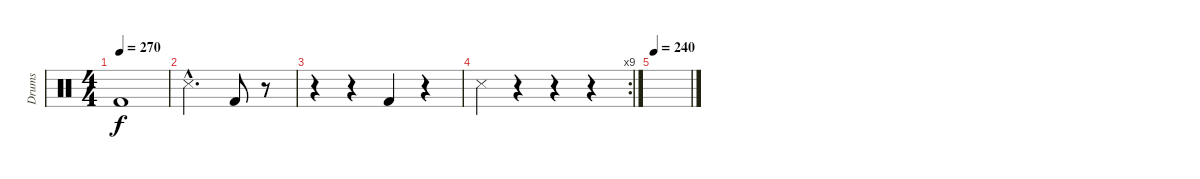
\track ("Drums" "Drums") {instrument percussion}
\staff {score}
\articulation defaults
\ts (4 4)
\tempo 270
\clef neutral
\ks c "Kick (hit) 2".1{dy f}
|
"Snare (side stick) 3"{hac}.2{d} "Kick (hit) 2".8 r.8 |
r.4 r.4 "Kick (hit) 2".4 r.4 |
\rc 9 "Snare (side stick) 3".4
r.4 r.4 r.4 |
\tempo 240
